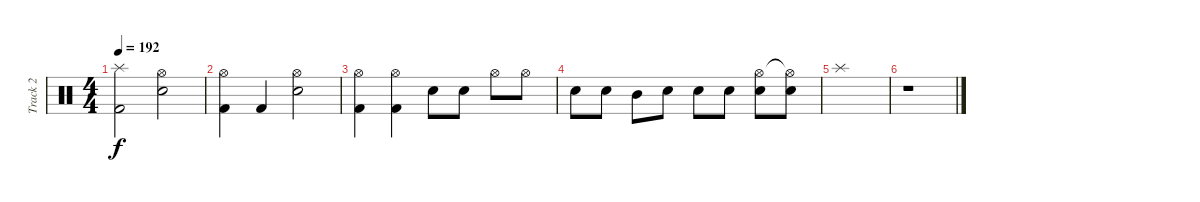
\track ("Track 2" "Track 2") {instrument percussion}
\staff {score}
\articulation defaults
\ts (4 4)
\tempo 192
\clef neutral
\ks c
("Splash (hit)" "Kick (hit) 2").2{dy f} ("Hi-Hat (open)" "Electric Snare (hit)").2 |
("Hi-Hat (open)" "Kick (hit) 2").4 "Kick (hit) 2".4 ("Hi-Hat (open)" "Electric Snare (hit)").2 |
("Hi-Hat (open)" "Kick (hit) 2").4 ("Hi-Hat (open)" "Kick (hit) 2").4 "Electric Snare (hit)".8 "Electric Snare (hit)".8 "Hi-Hat (open)".8 "Hi-Hat (open)".8 |
"Electric Snare (hit)".8 "Electric Snare (hit)".8 "Mid Tom (hit)".8 "Electric Snare (hit)".8 "Electric Snare (hit)".8 "Electric Snare (hit)".8 ("Hi-Hat (open)" "Electric Snare (hit)").8 ("Hi-Hat (open)"{t} "Electric Snare (hit)").8 |
"Splash (hit)".1 |
r.1
